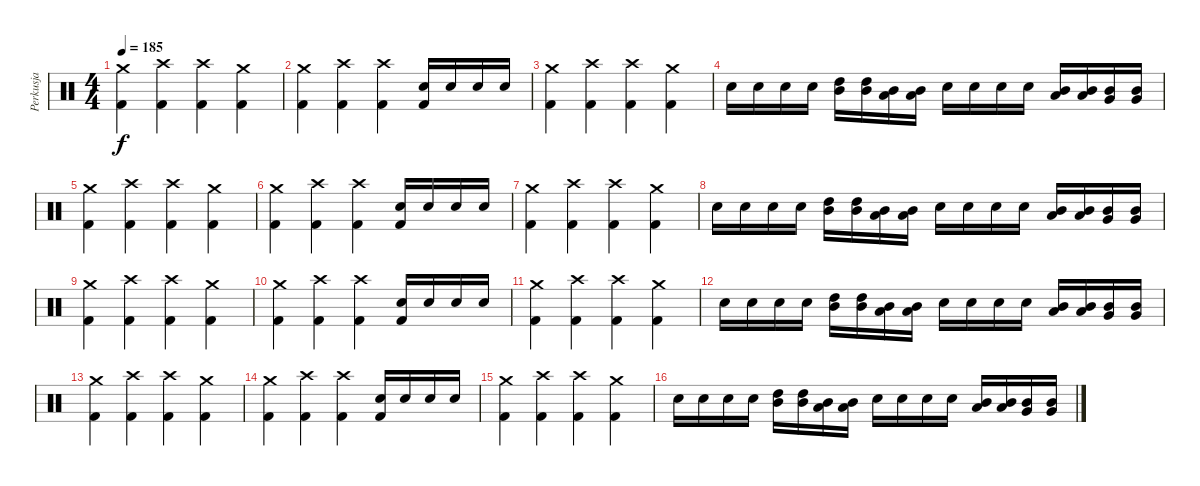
\track ("Perkusja" "Perkusja") {instrument percussion}
\staff {score}
\articulation defaults
\ts (4 4)
\tempo 185
\clef neutral
\ks c
("Crash medium (hit)" "Kick (hit) 2").4{dy f} ("Crash high (hit)" "Kick (hit) 2").4 ("Crash high (hit)" "Kick (hit) 2").4 ("Crash medium (hit)" "Kick (hit) 2").4 |
("Crash medium (hit)" "Kick (hit) 2").4 ("Crash high (hit)" "Kick (hit) 2").4 ("Crash high (hit)" "Kick (hit) 2").4 ("Snare (hit) 2" "Kick (hit) 2").16 "Snare (hit) 2".16 "Snare (hit) 2".16 "Snare (hit) 2".16 |
("Crash medium (hit)" "Kick (hit) 2").4 ("Crash high (hit)" "Kick (hit) 2").4 ("Crash high (hit)" "Kick (hit) 2").4 ("Crash medium (hit)" "Kick (hit) 2").4 |
"Snare (hit) 2".16 "Snare (hit) 2".16 "Snare (hit) 2".16 "Snare (hit) 2".16 ("Mid Tom (hit)" "High Tom (hit)").16 ("Mid Tom (hit)" "High Tom (hit)").16 ("Mid Tom (hit)" "Low Tom (hit)").16 ("Mid Tom (hit)" "Low Tom (hit)").16 "Snare (hit) 2".16 "Snare (hit) 2".16 "Snare (hit) 2".16 "Snare (hit) 2".16 ("Mid Tom (hit)" "Low Tom (hit)").16 ("Mid Tom (hit)" "Low Tom (hit)").16 ("Mid Tom (hit)" "Very Low Tom (hit)").16 ("Mid Tom (hit)" "Very Low Tom (hit)").16 |
("Crash medium (hit)" "Kick (hit) 2").4 ("Crash high (hit)" "Kick (hit) 2").4 ("Crash high (hit)" "Kick (hit) 2").4 ("Crash medium (hit)" "Kick (hit) 2").4 |
("Crash medium (hit)" "Kick (hit) 2").4 ("Crash high (hit)" "Kick (hit) 2").4 ("Crash high (hit)" "Kick (hit) 2").4 ("Snare (hit) 2" "Kick (hit) 2").16 "Snare (hit) 2".16 "Snare (hit) 2".16 "Snare (hit) 2".16 |
("Crash medium (hit)" "Kick (hit) 2").4 ("Crash high (hit)" "Kick (hit) 2").4 ("Crash high (hit)" "Kick (hit) 2").4 ("Crash medium (hit)" "Kick (hit) 2").4 |
"Snare (hit) 2".16 "Snare (hit) 2".16 "Snare (hit) 2".16 "Snare (hit) 2".16 ("Mid Tom (hit)" "High Tom (hit)").16 ("Mid Tom (hit)" "High Tom (hit)").16 ("Mid Tom (hit)" "Low Tom (hit)").16 ("Mid Tom (hit)" "Low Tom (hit)").16 "Snare (hit) 2".16 "Snare (hit) 2".16 "Snare (hit) 2".16 "Snare (hit) 2".16 ("Mid Tom (hit)" "Low Tom (hit)").16 ("Mid Tom (hit)" "Low Tom (hit)").16 ("Mid Tom (hit)" "Very Low Tom (hit)").16 ("Mid Tom (hit)" "Very Low Tom (hit)").16 |
("Crash medium (hit)" "Kick (hit) 2").4 ("Crash high (hit)" "Kick (hit) 2").4 ("Crash high (hit)" "Kick (hit) 2").4 ("Crash medium (hit)" "Kick (hit) 2").4 |
("Crash medium (hit)" "Kick (hit) 2").4 ("Crash high (hit)" "Kick (hit) 2").4 ("Crash high (hit)" "Kick (hit) 2").4 ("Snare (hit) 2" "Kick (hit) 2").16 "Snare (hit) 2".16 "Snare (hit) 2".16 "Snare (hit) 2".16 |
("Crash medium (hit)" "Kick (hit) 2").4 ("Crash high (hit)" "Kick (hit) 2").4 ("Crash high (hit)" "Kick (hit) 2").4 ("Crash medium (hit)" "Kick (hit) 2").4 |
"Snare (hit) 2".16 "Snare (hit) 2".16 "Snare (hit) 2".16 "Snare (hit) 2".16 ("Mid Tom (hit)" "High Tom (hit)").16 ("Mid Tom (hit)" "High Tom (hit)").16 ("Mid Tom (hit)" "Low Tom (hit)").16 ("Mid Tom (hit)" "Low Tom (hit)").16 "Snare (hit) 2".16 "Snare (hit) 2".16 "Snare (hit) 2".16 "Snare (hit) 2".16 ("Mid Tom (hit)" "Low Tom (hit)").16 ("Mid Tom (hit)" "Low Tom (hit)").16 ("Mid Tom (hit)" "Very Low Tom (hit)").16 ("Mid Tom (hit)" "Very Low Tom (hit)").16 |
("Crash medium (hit)" "Kick (hit) 2").4 ("Crash high (hit)" "Kick (hit) 2").4 ("Crash high (hit)" "Kick (hit) 2").4 ("Crash medium (hit)" "Kick (hit) 2").4 |
("Crash medium (hit)" "Kick (hit) 2").4 ("Crash high (hit)" "Kick (hit) 2").4 ("Crash high (hit)" "Kick (hit) 2").4 ("Snare (hit) 2" "Kick (hit) 2").16 "Snare (hit) 2".16 "Snare (hit) 2".16 "Snare (hit) 2".16 |
("Crash medium (hit)" "Kick (hit) 2").4 ("Crash high (hit)" "Kick (hit) 2").4 ("Crash high (hit)" "Kick (hit) 2").4 ("Crash medium (hit)" "Kick (hit) 2").4 |
"Snare (hit) 2".16 "Snare (hit) 2".16 "Snare (hit) 2".16 "Snare (hit) 2".16 ("Mid Tom (hit)" "High Tom (hit)").16 ("Mid Tom (hit)" "High Tom (hit)").16 ("Mid Tom (hit)" "Low Tom (hit)").16 ("Mid Tom (hit)" "Low Tom (hit)").16 "Snare (hit) 2".16 "Snare (hit) 2".16 "Snare (hit) 2".16 "Snare (hit) 2".16 ("Mid Tom (hit)" "Low Tom (hit)").16 ("Mid Tom (hit)" "Low Tom (hit)").16 ("Mid Tom (hit)" "Very Low Tom (hit)").16 ("Mid Tom (hit)" "Very Low Tom (hit)").16
